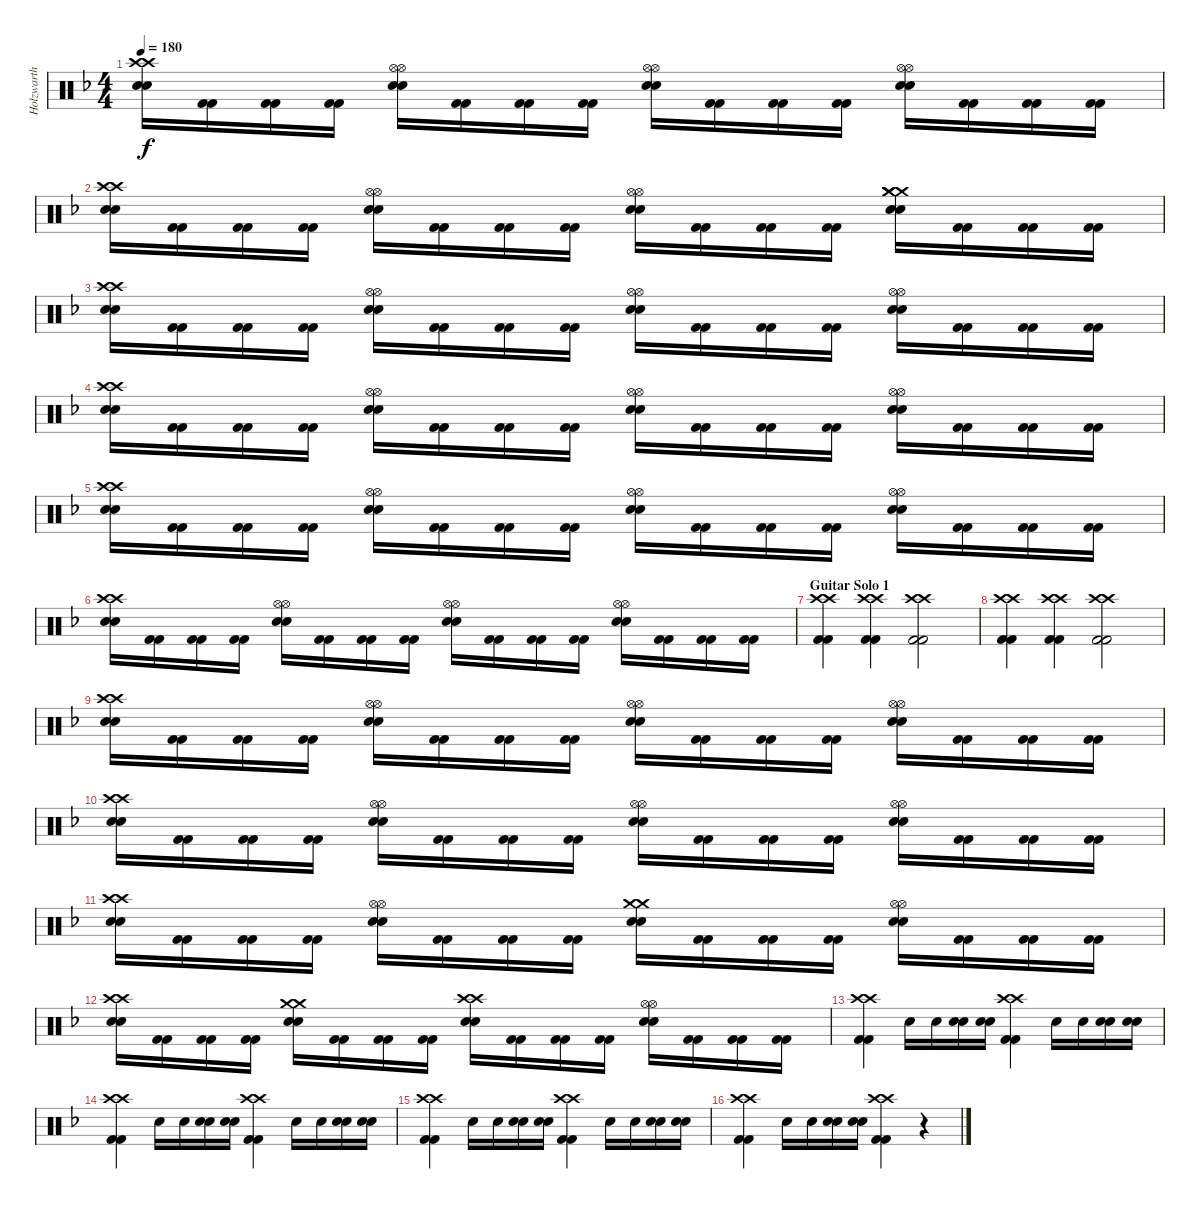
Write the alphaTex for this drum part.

\track ("Holzwarth" "Holzwarth") {instrument percussion}
\staff {score}
\articulation defaults
\ts (4 4)
\tempo 180
\clef neutral
\ks dminor
("Snare (hit) 2" "Snare (hit) 2" "Crash high (hit)" "Crash high (hit)").16{dy f} ("Kick (hit) 2" "Kick (hit) 2").16 ("Kick (hit) 2" "Kick (hit) 2").16 ("Kick (hit) 2" "Kick (hit) 2").16 ("Snare (hit) 2" "Snare (hit) 2" "Hi-Hat (open)" "Hi-Hat (open)").16 ("Kick (hit) 2" "Kick (hit) 2").16 ("Kick (hit) 2" "Kick (hit) 2").16 ("Kick (hit) 2" "Kick (hit) 2").16 ("Snare (hit) 2" "Snare (hit) 2" "Hi-Hat (open)" "Hi-Hat (open)").16 ("Kick (hit) 2" "Kick (hit) 2").16 ("Kick (hit) 2" "Kick (hit) 2").16 ("Kick (hit) 2" "Kick (hit) 2").16 ("Snare (hit) 2" "Snare (hit) 2" "Hi-Hat (open)" "Hi-Hat (open)").16 ("Kick (hit) 2" "Kick (hit) 2").16 ("Kick (hit) 2" "Kick (hit) 2").16 ("Kick (hit) 2" "Kick (hit) 2").16 |
("Snare (hit) 2" "Snare (hit) 2" "Crash high (hit)" "Crash high (hit)").16 ("Kick (hit) 2" "Kick (hit) 2").16 ("Kick (hit) 2" "Kick (hit) 2").16 ("Kick (hit) 2" "Kick (hit) 2").16 ("Snare (hit) 2" "Snare (hit) 2" "Hi-Hat (open)" "Hi-Hat (open)").16 ("Kick (hit) 2" "Kick (hit) 2").16 ("Kick (hit) 2" "Kick (hit) 2").16 ("Kick (hit) 2" "Kick (hit) 2").16 ("Snare (hit) 2" "Snare (hit) 2" "Hi-Hat (open)" "Hi-Hat (open)").16 ("Kick (hit) 2" "Kick (hit) 2").16 ("Kick (hit) 2" "Kick (hit) 2").16 ("Kick (hit) 2" "Kick (hit) 2").16 ("Snare (hit) 2" "Snare (hit) 2" "Crash medium (hit)" "Crash medium (hit)" "Crash medium (hit)").16 ("Kick (hit) 2" "Kick (hit) 2").16 ("Kick (hit) 2" "Kick (hit) 2").16 ("Kick (hit) 2" "Kick (hit) 2").16 |
("Snare (hit) 2" "Snare (hit) 2" "Crash high (hit)" "Crash high (hit)").16 ("Kick (hit) 2" "Kick (hit) 2").16 ("Kick (hit) 2" "Kick (hit) 2").16 ("Kick (hit) 2" "Kick (hit) 2").16 ("Snare (hit) 2" "Snare (hit) 2" "Hi-Hat (open)" "Hi-Hat (open)").16 ("Kick (hit) 2" "Kick (hit) 2").16 ("Kick (hit) 2" "Kick (hit) 2").16 ("Kick (hit) 2" "Kick (hit) 2").16 ("Snare (hit) 2" "Snare (hit) 2" "Hi-Hat (open)" "Hi-Hat (open)").16 ("Kick (hit) 2" "Kick (hit) 2").16 ("Kick (hit) 2" "Kick (hit) 2").16 ("Kick (hit) 2" "Kick (hit) 2").16 ("Snare (hit) 2" "Snare (hit) 2" "Hi-Hat (open)" "Hi-Hat (open)").16 ("Kick (hit) 2" "Kick (hit) 2").16 ("Kick (hit) 2" "Kick (hit) 2").16 ("Kick (hit) 2" "Kick (hit) 2").16 |
("Snare (hit) 2" "Snare (hit) 2" "Crash high (hit)" "Crash high (hit)").16 ("Kick (hit) 2" "Kick (hit) 2").16 ("Kick (hit) 2" "Kick (hit) 2").16 ("Kick (hit) 2" "Kick (hit) 2").16 ("Snare (hit) 2" "Snare (hit) 2" "Hi-Hat (open)" "Hi-Hat (open)").16 ("Kick (hit) 2" "Kick (hit) 2").16 ("Kick (hit) 2" "Kick (hit) 2").16 ("Kick (hit) 2" "Kick (hit) 2").16 ("Snare (hit) 2" "Snare (hit) 2" "Hi-Hat (open)" "Hi-Hat (open)").16 ("Kick (hit) 2" "Kick (hit) 2").16 ("Kick (hit) 2" "Kick (hit) 2").16 ("Kick (hit) 2" "Kick (hit) 2").16 ("Snare (hit) 2" "Snare (hit) 2" "Hi-Hat (open)" "Hi-Hat (open)").16 ("Kick (hit) 2" "Kick (hit) 2").16 ("Kick (hit) 2" "Kick (hit) 2").16 ("Kick (hit) 2" "Kick (hit) 2").16 |
("Snare (hit) 2" "Snare (hit) 2" "Crash high (hit)" "Crash high (hit)").16 ("Kick (hit) 2" "Kick (hit) 2").16 ("Kick (hit) 2" "Kick (hit) 2").16 ("Kick (hit) 2" "Kick (hit) 2").16 ("Snare (hit) 2" "Snare (hit) 2" "Hi-Hat (open)" "Hi-Hat (open)").16 ("Kick (hit) 2" "Kick (hit) 2").16 ("Kick (hit) 2" "Kick (hit) 2").16 ("Kick (hit) 2" "Kick (hit) 2").16 ("Snare (hit) 2" "Snare (hit) 2" "Hi-Hat (open)" "Hi-Hat (open)").16 ("Kick (hit) 2" "Kick (hit) 2").16 ("Kick (hit) 2" "Kick (hit) 2").16 ("Kick (hit) 2" "Kick (hit) 2").16 ("Snare (hit) 2" "Snare (hit) 2" "Hi-Hat (open)" "Hi-Hat (open)").16 ("Kick (hit) 2" "Kick (hit) 2").16 ("Kick (hit) 2" "Kick (hit) 2").16 ("Kick (hit) 2" "Kick (hit) 2").16 |
("Snare (hit) 2" "Snare (hit) 2" "Crash high (hit)" "Crash high (hit)").16 ("Kick (hit) 2" "Kick (hit) 2").16 ("Kick (hit) 2" "Kick (hit) 2").16 ("Kick (hit) 2" "Kick (hit) 2").16 ("Snare (hit) 2" "Snare (hit) 2" "Hi-Hat (open)" "Hi-Hat (open)").16 ("Kick (hit) 2" "Kick (hit) 2").16 ("Kick (hit) 2" "Kick (hit) 2").16 ("Kick (hit) 2" "Kick (hit) 2").16 ("Snare (hit) 2" "Snare (hit) 2" "Hi-Hat (open)" "Hi-Hat (open)").16 ("Kick (hit) 2" "Kick (hit) 2").16 ("Kick (hit) 2" "Kick (hit) 2").16 ("Kick (hit) 2" "Kick (hit) 2").16 ("Snare (hit) 2" "Snare (hit) 2" "Hi-Hat (open)" "Hi-Hat (open)").16 ("Kick (hit) 2" "Kick (hit) 2").16 ("Kick (hit) 2" "Kick (hit) 2").16 ("Kick (hit) 2" "Kick (hit) 2").16 |
\section ("" "Guitar Solo 1")
("Kick (hit) 2" "Kick (hit) 2" "Crash high (hit)" "Crash high (hit)").4 ("Kick (hit) 2" "Kick (hit) 2" "Crash high (hit)" "Crash high (hit)").4 ("Kick (hit) 2" "Kick (hit) 2" "Crash high (hit)" "Crash high (hit)").2 |
("Kick (hit) 2" "Kick (hit) 2" "Crash high (hit)" "Crash high (hit)").4 ("Kick (hit) 2" "Kick (hit) 2" "Crash high (hit)" "Crash high (hit)").4 ("Kick (hit) 2" "Kick (hit) 2" "Crash high (hit)" "Crash high (hit)").2 |
("Snare (hit) 2" "Snare (hit) 2" "Crash high (hit)" "Crash high (hit)").16 ("Kick (hit) 2" "Kick (hit) 2").16 ("Kick (hit) 2" "Kick (hit) 2").16 ("Kick (hit) 2" "Kick (hit) 2").16 ("Snare (hit) 2" "Snare (hit) 2" "Hi-Hat (open)" "Hi-Hat (open)").16 ("Kick (hit) 2" "Kick (hit) 2").16 ("Kick (hit) 2" "Kick (hit) 2").16 ("Kick (hit) 2" "Kick (hit) 2").16 ("Snare (hit) 2" "Snare (hit) 2" "Hi-Hat (open)" "Hi-Hat (open)").16 ("Kick (hit) 2" "Kick (hit) 2").16 ("Kick (hit) 2" "Kick (hit) 2").16 ("Kick (hit) 2" "Kick (hit) 2").16 ("Snare (hit) 2" "Snare (hit) 2" "Hi-Hat (open)" "Hi-Hat (open)").16 ("Kick (hit) 2" "Kick (hit) 2").16 ("Kick (hit) 2" "Kick (hit) 2").16 ("Kick (hit) 2" "Kick (hit) 2").16 |
("Snare (hit) 2" "Snare (hit) 2" "Crash high (hit)" "Crash high (hit)").16 ("Kick (hit) 2" "Kick (hit) 2").16 ("Kick (hit) 2" "Kick (hit) 2").16 ("Kick (hit) 2" "Kick (hit) 2").16 ("Snare (hit) 2" "Snare (hit) 2" "Hi-Hat (open)" "Hi-Hat (open)").16 ("Kick (hit) 2" "Kick (hit) 2").16 ("Kick (hit) 2" "Kick (hit) 2").16 ("Kick (hit) 2" "Kick (hit) 2").16 ("Snare (hit) 2" "Snare (hit) 2" "Hi-Hat (open)" "Hi-Hat (open)").16 ("Kick (hit) 2" "Kick (hit) 2").16 ("Kick (hit) 2" "Kick (hit) 2").16 ("Kick (hit) 2" "Kick (hit) 2").16 ("Snare (hit) 2" "Snare (hit) 2" "Hi-Hat (open)" "Hi-Hat (open)").16 ("Kick (hit) 2" "Kick (hit) 2").16 ("Kick (hit) 2" "Kick (hit) 2").16 ("Kick (hit) 2" "Kick (hit) 2").16 |
("Snare (hit) 2" "Snare (hit) 2" "Crash high (hit)" "Crash high (hit)").16 ("Kick (hit) 2" "Kick (hit) 2").16 ("Kick (hit) 2" "Kick (hit) 2").16 ("Kick (hit) 2" "Kick (hit) 2").16 ("Snare (hit) 2" "Snare (hit) 2" "Hi-Hat (open)" "Hi-Hat (open)").16 ("Kick (hit) 2" "Kick (hit) 2").16 ("Kick (hit) 2" "Kick (hit) 2").16 ("Kick (hit) 2" "Kick (hit) 2").16 ("Snare (hit) 2" "Snare (hit) 2" "Crash medium (hit)" "Crash medium (hit)").16 ("Kick (hit) 2" "Kick (hit) 2").16 ("Kick (hit) 2" "Kick (hit) 2").16 ("Kick (hit) 2" "Kick (hit) 2").16 ("Snare (hit) 2" "Snare (hit) 2" "Hi-Hat (open)" "Hi-Hat (open)").16 ("Kick (hit) 2" "Kick (hit) 2").16 ("Kick (hit) 2" "Kick (hit) 2").16 ("Kick (hit) 2" "Kick (hit) 2").16 |
("Snare (hit) 2" "Snare (hit) 2" "Crash high (hit)" "Crash high (hit)").16 ("Kick (hit) 2" "Kick (hit) 2").16 ("Kick (hit) 2" "Kick (hit) 2").16 ("Kick (hit) 2" "Kick (hit) 2").16 ("Snare (hit) 2" "Snare (hit) 2" "Crash medium (hit)" "Crash medium (hit)").16 ("Kick (hit) 2" "Kick (hit) 2").16 ("Kick (hit) 2" "Kick (hit) 2").16 ("Kick (hit) 2" "Kick (hit) 2").16 ("Snare (hit) 2" "Snare (hit) 2" "Crash high (hit)" "Crash high (hit)").16 ("Kick (hit) 2" "Kick (hit) 2").16 ("Kick (hit) 2" "Kick (hit) 2").16 ("Kick (hit) 2" "Kick (hit) 2").16 ("Snare (hit) 2" "Snare (hit) 2" "Hi-Hat (open)" "Hi-Hat (open)").16 ("Kick (hit) 2" "Kick (hit) 2").16 ("Kick (hit) 2" "Kick (hit) 2").16 ("Kick (hit) 2" "Kick (hit) 2").16 |
("Kick (hit) 2" "Kick (hit) 2" "Crash high (hit)" "Crash high (hit)").4 "Snare (hit) 2".16 "Snare (hit) 2".16 ("Snare (hit) 2" "Snare (hit) 2").16 ("Snare (hit) 2" "Snare (hit) 2").16 ("Kick (hit) 2" "Kick (hit) 2" "Crash high (hit)" "Crash high (hit)").4 "Snare (hit) 2".16 "Snare (hit) 2".16 ("Snare (hit) 2" "Snare (hit) 2").16 ("Snare (hit) 2" "Snare (hit) 2").16 |
("Kick (hit) 2" "Kick (hit) 2" "Crash high (hit)" "Crash high (hit)").4 "Snare (hit) 2".16 "Snare (hit) 2".16 ("Snare (hit) 2" "Snare (hit) 2").16 ("Snare (hit) 2" "Snare (hit) 2").16 ("Kick (hit) 2" "Kick (hit) 2" "Crash high (hit)" "Crash high (hit)").4 "Snare (hit) 2".16 "Snare (hit) 2".16 ("Snare (hit) 2" "Snare (hit) 2").16 ("Snare (hit) 2" "Snare (hit) 2").16 |
("Kick (hit) 2" "Kick (hit) 2" "Crash high (hit)" "Crash high (hit)").4 "Snare (hit) 2".16 "Snare (hit) 2".16 ("Snare (hit) 2" "Snare (hit) 2").16 ("Snare (hit) 2" "Snare (hit) 2").16 ("Kick (hit) 2" "Kick (hit) 2" "Crash high (hit)" "Crash high (hit)").4 "Snare (hit) 2".16 "Snare (hit) 2".16 ("Snare (hit) 2" "Snare (hit) 2").16 ("Snare (hit) 2" "Snare (hit) 2").16 |
("Kick (hit) 2" "Kick (hit) 2" "Crash high (hit)" "Crash high (hit)").4 "Snare (hit) 2".16 "Snare (hit) 2".16 ("Snare (hit) 2" "Snare (hit) 2").16 ("Snare (hit) 2" "Snare (hit) 2").16 ("Kick (hit) 2" "Kick (hit) 2" "Crash high (hit)" "Crash high (hit)").4 r.4
